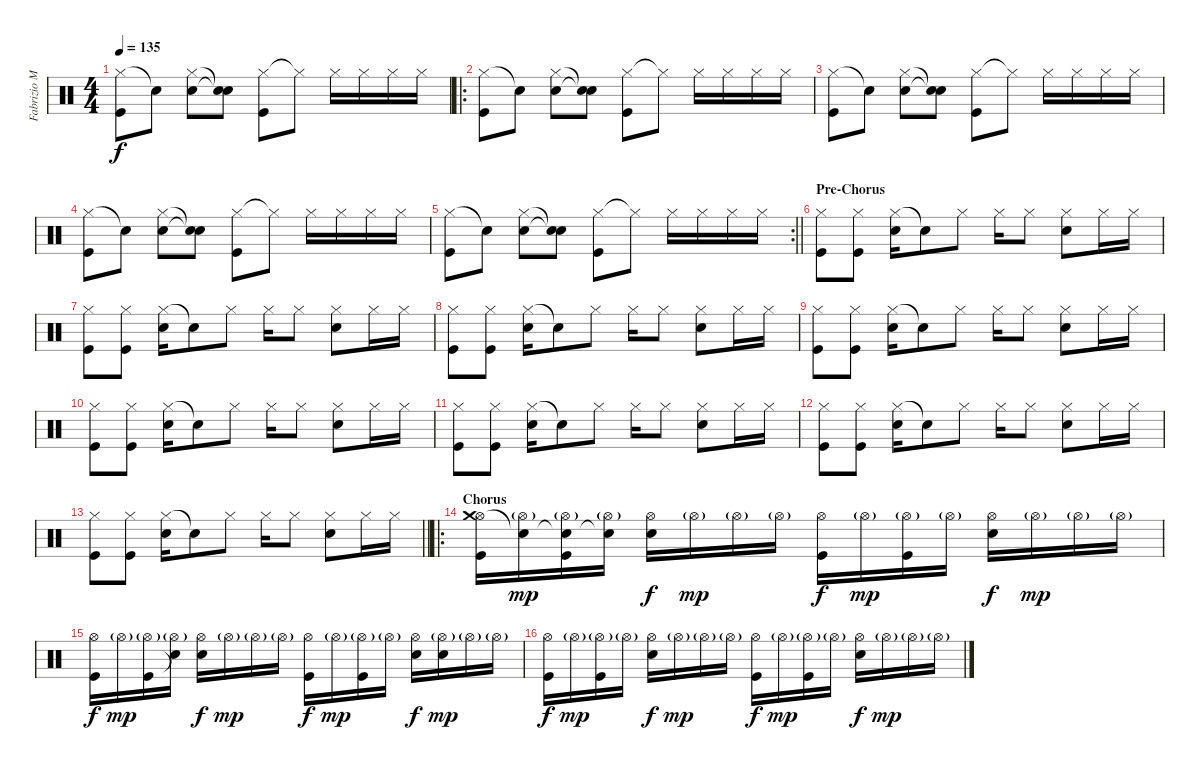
\track ("Fabrizio Moretti" "Fabrizio M") {instrument percussion}
\staff {score}
\articulation defaults
\ts (4 4)
\tempo 135
\clef neutral
\ks c
("Hi-Hat (closed)" "Kick (hit)").8{dy f} "Snare (hit)"{t}.8 ("Hi-Hat (closed)" "Electric Snare (hit)").8 ("Snare (hit)"{t} "Snare (hit)"{t}).8 ("Hi-Hat (closed)" "Kick (hit)").8 "Hi-Hat (closed)"{t}.8 "Hi-Hat (closed)".16 "Hi-Hat (closed)".16 "Hi-Hat (closed)".16 "Hi-Hat (closed)".16 |
\ro
("Hi-Hat (closed)" "Kick (hit)").8 "Snare (hit)"{t}.8 ("Hi-Hat (closed)" "Electric Snare (hit)").8 ("Snare (hit)"{t} "Snare (hit)"{t}).8 ("Hi-Hat (closed)" "Kick (hit)").8 "Hi-Hat (closed)"{t}.8 "Hi-Hat (closed)".16 "Hi-Hat (closed)".16 "Hi-Hat (closed)".16 "Hi-Hat (closed)".16 |
("Hi-Hat (closed)" "Kick (hit)").8 "Snare (hit)"{t}.8 ("Hi-Hat (closed)" "Electric Snare (hit)").8 ("Snare (hit)"{t} "Snare (hit)"{t}).8 ("Hi-Hat (closed)" "Kick (hit)").8 "Hi-Hat (closed)"{t}.8 "Hi-Hat (closed)".16 "Hi-Hat (closed)".16 "Hi-Hat (closed)".16 "Hi-Hat (closed)".16 |
("Hi-Hat (closed)" "Kick (hit)").8 "Snare (hit)"{t}.8 ("Hi-Hat (closed)" "Electric Snare (hit)").8 ("Snare (hit)"{t} "Snare (hit)"{t}).8 ("Hi-Hat (closed)" "Kick (hit)").8 "Hi-Hat (closed)"{t}.8 "Hi-Hat (closed)".16 "Hi-Hat (closed)".16 "Hi-Hat (closed)".16 "Hi-Hat (closed)".16 |
\rc 2
\barLineRight lightlight
("Hi-Hat (closed)" "Kick (hit)").8 "Snare (hit)"{t}.8 ("Hi-Hat (closed)" "Electric Snare (hit)").8 ("Snare (hit)"{t} "Snare (hit)"{t}).8 ("Hi-Hat (closed)" "Kick (hit)").8 "Hi-Hat (closed)"{t}.8 "Hi-Hat (closed)".16 "Hi-Hat (closed)".16 "Hi-Hat (closed)".16 "Hi-Hat (closed)".16 |
\section ("" "Pre-Chorus")
("Hi-Hat (closed)" "Kick (hit)").8 ("Hi-Hat (closed)" "Kick (hit)").8 ("Hi-Hat (closed)" "Electric Snare (hit)").16 "Snare (hit)"{t}.8 "Hi-Hat (closed)".8 "Hi-Hat (closed)".16 "Hi-Hat (closed)".8 ("Hi-Hat (closed)" "Electric Snare (hit)").8 "Hi-Hat (closed)".16 "Hi-Hat (closed)".16 |
("Hi-Hat (closed)" "Kick (hit)").8 ("Hi-Hat (closed)" "Kick (hit)").8 ("Hi-Hat (closed)" "Electric Snare (hit)").16 "Snare (hit)"{t}.8 "Hi-Hat (closed)".8 "Hi-Hat (closed)".16 "Hi-Hat (closed)".8 ("Hi-Hat (closed)" "Electric Snare (hit)").8 "Hi-Hat (closed)".16 "Hi-Hat (closed)".16 |
("Hi-Hat (closed)" "Kick (hit)").8 ("Hi-Hat (closed)" "Kick (hit)").8 ("Hi-Hat (closed)" "Electric Snare (hit)").16 "Snare (hit)"{t}.8 "Hi-Hat (closed)".8 "Hi-Hat (closed)".16 "Hi-Hat (closed)".8 ("Hi-Hat (closed)" "Electric Snare (hit)").8 "Hi-Hat (closed)".16 "Hi-Hat (closed)".16 |
("Hi-Hat (closed)" "Kick (hit)").8 ("Hi-Hat (closed)" "Kick (hit)").8 ("Hi-Hat (closed)" "Electric Snare (hit)").16 "Snare (hit)"{t}.8 "Hi-Hat (closed)".8 "Hi-Hat (closed)".16 "Hi-Hat (closed)".8 ("Hi-Hat (closed)" "Electric Snare (hit)").8 "Hi-Hat (closed)".16 "Hi-Hat (closed)".16 |
("Hi-Hat (closed)" "Kick (hit)").8 ("Hi-Hat (closed)" "Kick (hit)").8 ("Hi-Hat (closed)" "Electric Snare (hit)").16 "Snare (hit)"{t}.8 "Hi-Hat (closed)".8 "Hi-Hat (closed)".16 "Hi-Hat (closed)".8 ("Hi-Hat (closed)" "Electric Snare (hit)").8 "Hi-Hat (closed)".16 "Hi-Hat (closed)".16 |
("Hi-Hat (closed)" "Kick (hit)").8 ("Hi-Hat (closed)" "Kick (hit)").8 ("Hi-Hat (closed)" "Electric Snare (hit)").16 "Snare (hit)"{t}.8 "Hi-Hat (closed)".8 "Hi-Hat (closed)".16 "Hi-Hat (closed)".8 ("Hi-Hat (closed)" "Electric Snare (hit)").8 "Hi-Hat (closed)".16 "Hi-Hat (closed)".16 |
("Hi-Hat (closed)" "Kick (hit)").8 ("Hi-Hat (closed)" "Kick (hit)").8 ("Hi-Hat (closed)" "Electric Snare (hit)").16 "Snare (hit)"{t}.8 "Hi-Hat (closed)".8 "Hi-Hat (closed)".16 "Hi-Hat (closed)".8 ("Hi-Hat (closed)" "Electric Snare (hit)").8 "Hi-Hat (closed)".16 "Hi-Hat (closed)".16 |
\barLineRight lightlight
("Hi-Hat (closed)" "Kick (hit)").8 ("Hi-Hat (closed)" "Kick (hit)").8 ("Hi-Hat (closed)" "Electric Snare (hit)").16 "Snare (hit)"{t}.8 "Hi-Hat (closed)".8 "Hi-Hat (closed)".16 "Hi-Hat (closed)".8 ("Hi-Hat (closed)" "Electric Snare (hit)").8 "Hi-Hat (closed)".16 "Hi-Hat (closed)".16 |
\ro
\section ("" "Chorus")
("Hi-Hat (open)" "Crash medium (hit)" "Kick (hit)").16 ("Hi-Hat (open)"{g} "Snare (hit)"{t}).16{dy mp} ("Hi-Hat (open)"{g} "Snare (hit)"{t} "Kick (hit)").16 ("Hi-Hat (open)"{g} "Snare (hit)"{t}).16 ("Hi-Hat (open)" "Electric Snare (hit)").16{dy f} "Hi-Hat (open)"{g}.16{dy mp} "Hi-Hat (open)"{g}.16 "Hi-Hat (open)"{g}.16 ("Hi-Hat (open)" "Kick (hit)").16{dy f} "Hi-Hat (open)"{g}.16{dy mp} ("Hi-Hat (open)"{g} "Kick (hit)").16 "Hi-Hat (open)"{g}.16 ("Hi-Hat (open)" "Electric Snare (hit)").16{dy f} "Hi-Hat (open)"{g}.16{dy mp} "Hi-Hat (open)"{g}.16 "Hi-Hat (open)"{g}.16 |
("Hi-Hat (open)" "Kick (hit)").16{dy f} "Hi-Hat (open)"{g}.16{dy mp} ("Hi-Hat (open)"{g} "Kick (hit)").16 ("Hi-Hat (open)"{g} "Snare (hit)"{t}).16 ("Hi-Hat (open)" "Electric Snare (hit)").16{dy f} "Hi-Hat (open)"{g}.16{dy mp} "Hi-Hat (open)"{g}.16 "Hi-Hat (open)"{g}.16 ("Hi-Hat (open)" "Kick (hit)").16{dy f} "Hi-Hat (open)"{g}.16{dy mp} ("Hi-Hat (open)"{g} "Kick (hit)").16 "Hi-Hat (open)"{g}.16 ("Hi-Hat (open)" "Electric Snare (hit)").16{dy f} ("Hi-Hat (open)"{g} "Electric Snare (hit)").16{dy mp} "Hi-Hat (open)"{g}.16 "Hi-Hat (open)"{g}.16 |
("Hi-Hat (open)" "Kick (hit)").16{dy f} "Hi-Hat (open)"{g}.16{dy mp} ("Hi-Hat (open)"{g} "Kick (hit)").16 "Hi-Hat (open)"{g}.16 ("Hi-Hat (open)" "Electric Snare (hit)").16{dy f} "Hi-Hat (open)"{g}.16{dy mp} "Hi-Hat (open)"{g}.16 "Hi-Hat (open)"{g}.16 ("Hi-Hat (open)" "Kick (hit)").16{dy f} "Hi-Hat (open)"{g}.16{dy mp} ("Hi-Hat (open)"{g} "Kick (hit)").16 "Hi-Hat (open)"{g}.16 ("Hi-Hat (open)" "Electric Snare (hit)").16{dy f} "Hi-Hat (open)"{g}.16{dy mp} "Hi-Hat (open)"{g}.16 "Hi-Hat (open)"{g}.16
